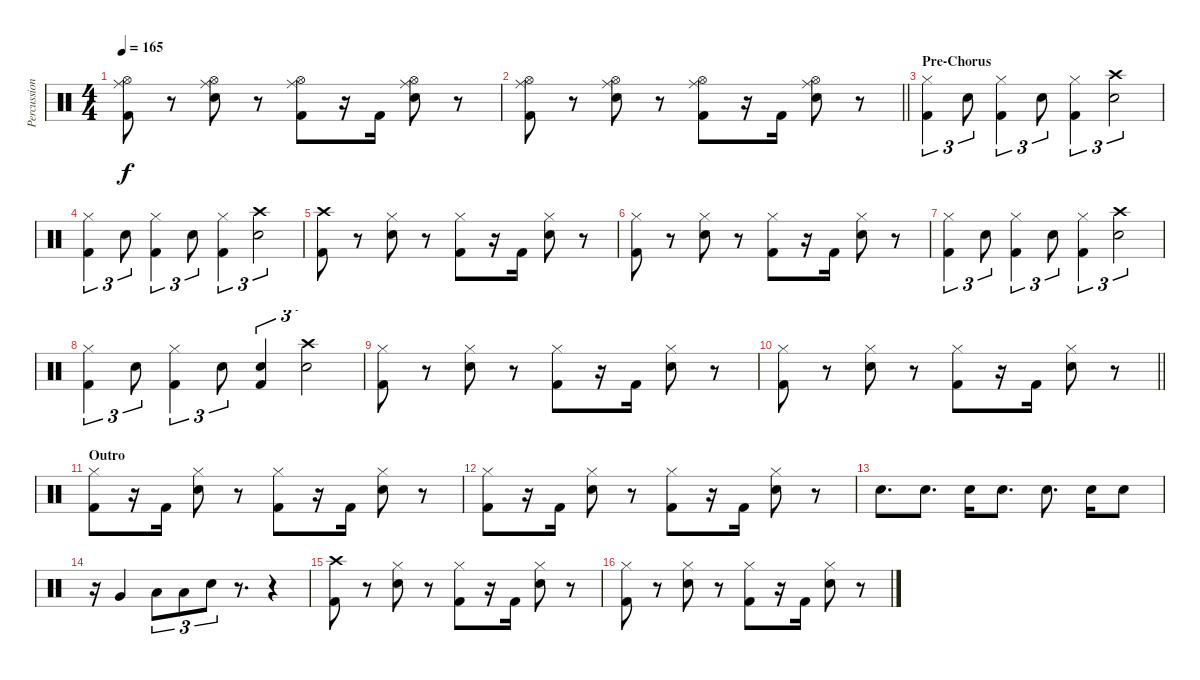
\track ("Percussion" "Percussion") {instrument percussion}
\staff {score}
\articulation defaults
\ts (4 4)
\tempo 165
\clef neutral
\ks c
("Hi-Hat (open)" "Ride (middle)" "Kick (hit) 2").8{dy f} r.8 ("Hi-Hat (open)" "Ride (middle)" "Snare (hit) 2").8 r.8 ("Hi-Hat (open)" "Ride (middle)" "Kick (hit) 2").8 r.16 "Kick (hit) 2".16 ("Hi-Hat (open)" "Ride (middle)" "Snare (hit) 2").8 r.8 |
\barLineRight lightlight
("Hi-Hat (open)" "Ride (middle)" "Kick (hit) 2").8 r.8 ("Hi-Hat (open)" "Ride (middle)" "Snare (hit) 2").8 r.8 ("Hi-Hat (open)" "Ride (middle)" "Kick (hit) 2").8 r.16 "Kick (hit) 2".16 ("Hi-Hat (open)" "Ride (middle)" "Snare (hit) 2").8 r.8 |
\section ("" "Pre-Chorus")
("Hi-Hat (closed)" "Kick (hit) 2").4{tu (3 2)} "Snare (hit) 2".8{tu (3 2)} ("Hi-Hat (closed)" "Kick (hit) 2").4{tu (3 2)} "Snare (hit) 2".8{tu (3 2)} ("Hi-Hat (closed)" "Kick (hit) 2").4{tu (3 2)} ("Crash high (hit)" "Snare (hit) 2").2{tu (3 2)} |
("Hi-Hat (closed)" "Kick (hit) 2").4{tu (3 2)} "Snare (hit) 2".8{tu (3 2)} ("Hi-Hat (closed)" "Kick (hit) 2").4{tu (3 2)} "Snare (hit) 2".8{tu (3 2)} ("Hi-Hat (closed)" "Kick (hit) 2").4{tu (3 2)} ("Crash high (hit)" "Snare (hit) 2").2{tu (3 2)} |
("Crash high (hit)" "Kick (hit) 2").8 r.8 ("Hi-Hat (closed)" "Snare (hit) 2").8 r.8 ("Hi-Hat (closed)" "Kick (hit) 2").8 r.16 "Kick (hit) 2".16 ("Hi-Hat (closed)" "Snare (hit) 2").8 r.8 |
("Hi-Hat (closed)" "Kick (hit) 2").8 r.8 ("Hi-Hat (closed)" "Snare (hit) 2").8 r.8 ("Hi-Hat (closed)" "Kick (hit) 2").8 r.16 "Kick (hit) 2".16 ("Hi-Hat (closed)" "Snare (hit) 2").8 r.8 |
("Hi-Hat (closed)" "Kick (hit) 2").4{tu (3 2)} "Snare (hit) 2".8{tu (3 2)} ("Hi-Hat (closed)" "Kick (hit) 2").4{tu (3 2)} "Snare (hit) 2".8{tu (3 2)} ("Hi-Hat (closed)" "Kick (hit) 2").4{tu (3 2)} ("Crash high (hit)" "Snare (hit) 2").2{tu (3 2)} |
("Hi-Hat (closed)" "Kick (hit) 2").4{tu (3 2)} "Snare (hit) 2".8{tu (3 2)} ("Hi-Hat (closed)" "Kick (hit) 2").4{tu (3 2)} "Snare (hit) 2".8{tu (3 2)} ("Snare (hit)" "Kick (hit) 2").4{tu (3 2)} ("Crash high (hit)" "Snare (hit) 2").2{tu (3 2)} |
("Hi-Hat (closed)" "Kick (hit) 2").8 r.8 ("Hi-Hat (closed)" "Snare (hit) 2").8 r.8 ("Hi-Hat (closed)" "Kick (hit) 2").8 r.16 "Kick (hit) 2".16 ("Hi-Hat (closed)" "Snare (hit) 2").8 r.8 |
\barLineRight lightlight
("Hi-Hat (closed)" "Kick (hit) 2").8 r.8 ("Hi-Hat (closed)" "Snare (hit) 2").8 r.8 ("Hi-Hat (closed)" "Kick (hit) 2").8 r.16 "Kick (hit) 2".16 ("Hi-Hat (closed)" "Snare (hit) 2").8 r.8 |
\section ("" "Outro")
("Hi-Hat (closed)" "Kick (hit) 2").8 r.16 "Kick (hit) 2".16 ("Hi-Hat (closed)" "Snare (hit) 2").8 r.8 ("Hi-Hat (closed)" "Kick (hit) 2").8 r.16 "Kick (hit) 2".16 ("Hi-Hat (closed)" "Snare (hit) 2").8 r.8 |
("Hi-Hat (closed)" "Kick (hit) 2").8 r.16 "Kick (hit) 2".16 ("Hi-Hat (closed)" "Snare (hit) 2").8 r.8 ("Hi-Hat (closed)" "Kick (hit) 2").8 r.16 "Kick (hit) 2".16 ("Hi-Hat (closed)" "Snare (hit) 2").8 r.8 |
"Snare (hit) 2".8{d} "Snare (hit) 2".8{d} "Snare (hit) 2".16 "Snare (hit) 2".8{d} "Snare (hit) 2".8{d} "Snare (hit) 2".16 "Snare (hit) 2".8 |
r.16 "Very Low Tom (hit)".4 "Low Floor Tom (hit)".8{tu (3 2)} "Low Floor Tom (hit)".8{tu (3 2)} "Snare (hit) 2".8{tu (3 2)} r.8{d} r.4 |
("Crash high (hit)" "Kick (hit) 2").8 r.8 ("Hi-Hat (closed)" "Snare (hit) 2").8 r.8 ("Hi-Hat (closed)" "Kick (hit) 2").8 r.16 "Kick (hit) 2".16 ("Hi-Hat (closed)" "Snare (hit) 2").8 r.8 |
("Hi-Hat (closed)" "Kick (hit) 2").8 r.8 ("Hi-Hat (closed)" "Snare (hit) 2").8 r.8 ("Hi-Hat (closed)" "Kick (hit) 2").8 r.16 "Kick (hit) 2".16 ("Hi-Hat (closed)" "Snare (hit) 2").8 r.8
